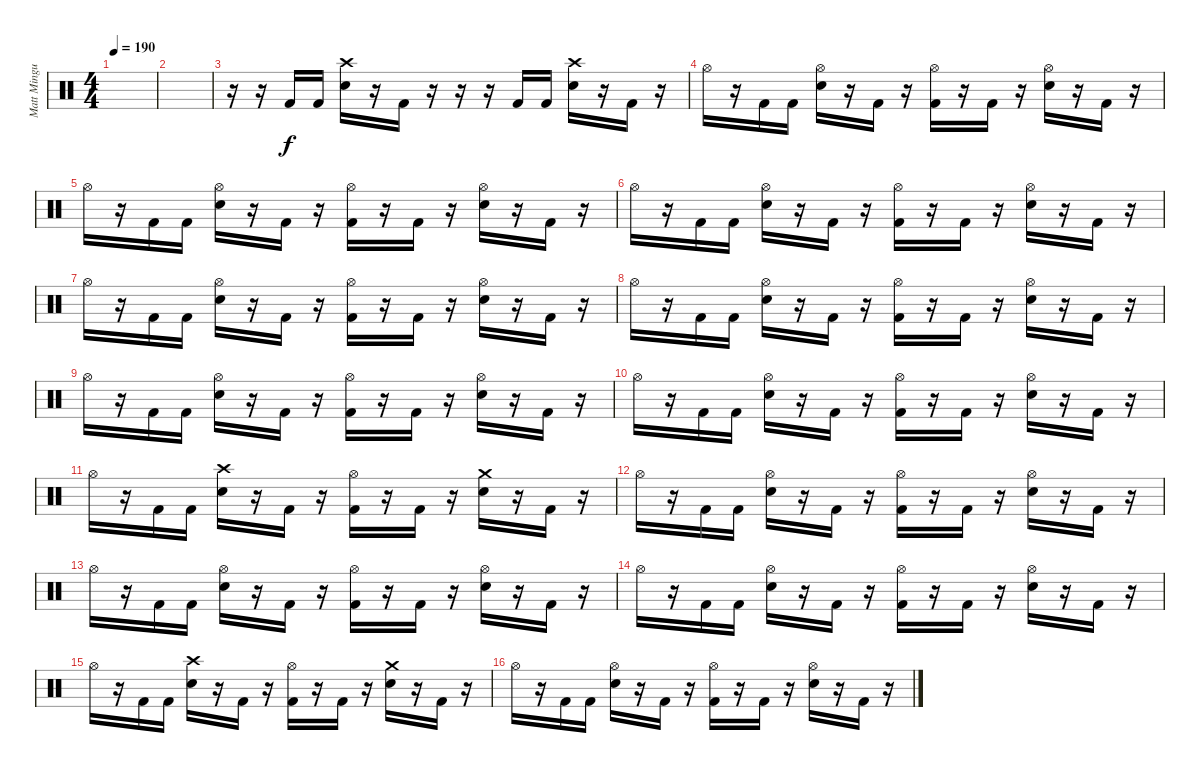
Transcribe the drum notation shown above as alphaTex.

\track ("Matt Mingus" "Matt Mingu") {instrument percussion}
\staff {score}
\articulation defaults
\ts (4 4)
\tempo 190
\clef neutral
\ks c
|
|
r.16 r.16 "Kick (hit) 2".16 "Kick (hit) 2".16 ("Crash high (hit)" "Electric Snare (hit)").16{dy f} r.16 "Kick (hit) 2".16 r.16 r.16 r.16 "Kick (hit) 2".16 "Kick (hit) 2".16 ("Crash high (hit)" "Electric Snare (hit)").16 r.16 "Kick (hit) 2".16 r.16 |
"Hi-Hat (open)".16 r.16 "Kick (hit) 2".16 "Kick (hit) 2".16 ("Hi-Hat (open)" "Electric Snare (hit)").16 r.16 "Kick (hit) 2".16 r.16 ("Hi-Hat (open)" "Kick (hit) 2").16 r.16 "Kick (hit) 2".16 r.16 ("Hi-Hat (open)" "Electric Snare (hit)").16 r.16 "Kick (hit) 2".16 r.16 |
"Hi-Hat (open)".16 r.16 "Kick (hit) 2".16 "Kick (hit) 2".16 ("Hi-Hat (open)" "Electric Snare (hit)").16 r.16 "Kick (hit) 2".16 r.16 ("Hi-Hat (open)" "Kick (hit) 2").16 r.16 "Kick (hit) 2".16 r.16 ("Hi-Hat (open)" "Electric Snare (hit)").16 r.16 "Kick (hit) 2".16 r.16 |
"Hi-Hat (open)".16 r.16 "Kick (hit) 2".16 "Kick (hit) 2".16 ("Hi-Hat (open)" "Electric Snare (hit)").16 r.16 "Kick (hit) 2".16 r.16 ("Hi-Hat (open)" "Kick (hit) 2").16 r.16 "Kick (hit) 2".16 r.16 ("Hi-Hat (open)" "Electric Snare (hit)").16 r.16 "Kick (hit) 2".16 r.16 |
"Hi-Hat (open)".16 r.16 "Kick (hit) 2".16 "Kick (hit) 2".16 ("Hi-Hat (open)" "Electric Snare (hit)").16 r.16 "Kick (hit) 2".16 r.16 ("Hi-Hat (open)" "Kick (hit) 2").16 r.16 "Kick (hit) 2".16 r.16 ("Hi-Hat (open)" "Electric Snare (hit)").16 r.16 "Kick (hit) 2".16 r.16 |
"Hi-Hat (open)".16 r.16 "Kick (hit) 2".16 "Kick (hit) 2".16 ("Hi-Hat (open)" "Electric Snare (hit)").16 r.16 "Kick (hit) 2".16 r.16 ("Hi-Hat (open)" "Kick (hit) 2").16 r.16 "Kick (hit) 2".16 r.16 ("Hi-Hat (open)" "Electric Snare (hit)").16 r.16 "Kick (hit) 2".16 r.16 |
"Hi-Hat (open)".16 r.16 "Kick (hit) 2".16 "Kick (hit) 2".16 ("Hi-Hat (open)" "Electric Snare (hit)").16 r.16 "Kick (hit) 2".16 r.16 ("Hi-Hat (open)" "Kick (hit) 2").16 r.16 "Kick (hit) 2".16 r.16 ("Hi-Hat (open)" "Electric Snare (hit)").16 r.16 "Kick (hit) 2".16 r.16 |
"Hi-Hat (open)".16 r.16 "Kick (hit) 2".16 "Kick (hit) 2".16 ("Hi-Hat (open)" "Electric Snare (hit)").16 r.16 "Kick (hit) 2".16 r.16 ("Hi-Hat (open)" "Kick (hit) 2").16 r.16 "Kick (hit) 2".16 r.16 ("Hi-Hat (open)" "Electric Snare (hit)").16 r.16 "Kick (hit) 2".16 r.16 |
"Hi-Hat (open)".16 r.16 "Kick (hit) 2".16 "Kick (hit) 2".16 ("Crash high (hit)" "Electric Snare (hit)").16 r.16 "Kick (hit) 2".16 r.16 ("Hi-Hat (open)" "Kick (hit) 2").16 r.16 "Kick (hit) 2".16 r.16 ("Crash medium (hit)" "Electric Snare (hit)").16 r.16 "Kick (hit) 2".16 r.16 |
"Hi-Hat (open)".16 r.16 "Kick (hit) 2".16 "Kick (hit) 2".16 ("Hi-Hat (open)" "Electric Snare (hit)").16 r.16 "Kick (hit) 2".16 r.16 ("Hi-Hat (open)" "Kick (hit) 2").16 r.16 "Kick (hit) 2".16 r.16 ("Hi-Hat (open)" "Electric Snare (hit)").16 r.16 "Kick (hit) 2".16 r.16 |
"Hi-Hat (open)".16 r.16 "Kick (hit) 2".16 "Kick (hit) 2".16 ("Hi-Hat (open)" "Electric Snare (hit)").16 r.16 "Kick (hit) 2".16 r.16 ("Hi-Hat (open)" "Kick (hit) 2").16 r.16 "Kick (hit) 2".16 r.16 ("Hi-Hat (open)" "Electric Snare (hit)").16 r.16 "Kick (hit) 2".16 r.16 |
"Hi-Hat (open)".16 r.16 "Kick (hit) 2".16 "Kick (hit) 2".16 ("Hi-Hat (open)" "Electric Snare (hit)").16 r.16 "Kick (hit) 2".16 r.16 ("Hi-Hat (open)" "Kick (hit) 2").16 r.16 "Kick (hit) 2".16 r.16 ("Hi-Hat (open)" "Electric Snare (hit)").16 r.16 "Kick (hit) 2".16 r.16 |
"Hi-Hat (open)".16 r.16 "Kick (hit) 2".16 "Kick (hit) 2".16 ("Crash high (hit)" "Electric Snare (hit)").16 r.16 "Kick (hit) 2".16 r.16 ("Hi-Hat (open)" "Kick (hit) 2").16 r.16 "Kick (hit) 2".16 r.16 ("Crash medium (hit)" "Electric Snare (hit)").16 r.16 "Kick (hit) 2".16 r.16 |
"Hi-Hat (open)".16 r.16 "Kick (hit) 2".16 "Kick (hit) 2".16 ("Hi-Hat (open)" "Electric Snare (hit)").16 r.16 "Kick (hit) 2".16 r.16 ("Hi-Hat (open)" "Kick (hit) 2").16 r.16 "Kick (hit) 2".16 r.16 ("Hi-Hat (open)" "Electric Snare (hit)").16 r.16 "Kick (hit) 2".16 r.16
